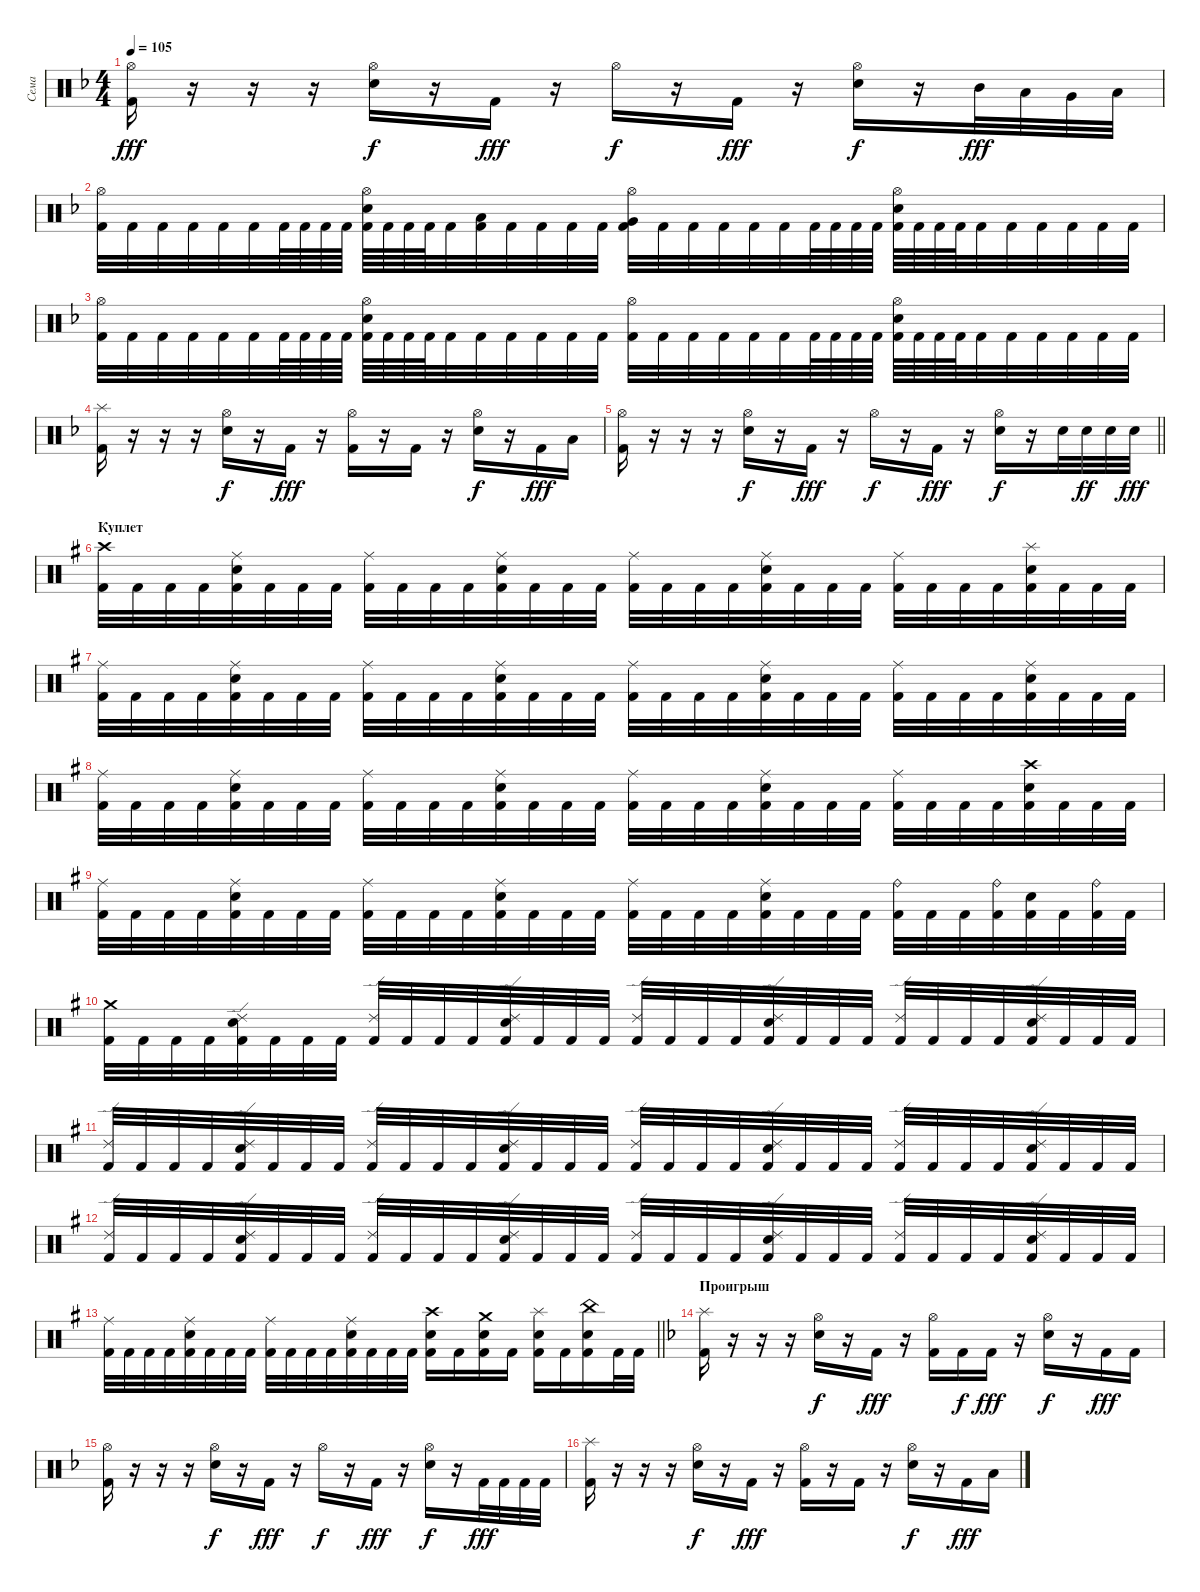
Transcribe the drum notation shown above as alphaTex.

\track ("Сема" "Сема") {instrument percussion}
\staff {score}
\articulation defaults
\ts (4 4)
\tempo 105
\clef neutral
\ks dminor
("Hi-Hat (open)" "Kick (hit) 2").16{dy fff} r.16 r.16 r.16 ("Hi-Hat (open)" "Electric Snare (hit)").16{dy f} r.16 "Kick (hit) 2".16{dy fff} r.16 "Hi-Hat (open)".16{dy f} r.16 "Kick (hit) 2".16{dy fff} r.16 ("Hi-Hat (open)" "Electric Snare (hit)").16{dy f} r.16 "Mid Tom (hit)".32{dy fff} "Low Tom (hit)".32 "Very Low Tom (hit)".32 "Low Floor Tom (hit)".32 |
("Hi-Hat (open)" "Kick (hit) 2").32 "Kick (hit) 2".32 "Kick (hit) 2".32 "Kick (hit) 2".32 "Kick (hit) 2".32 "Kick (hit) 2".32 "Kick (hit) 2".64 "Kick (hit) 2".64 "Kick (hit) 2".64 "Kick (hit) 2".64 ("Hi-Hat (open)" "Electric Snare (hit)" "Kick (hit) 2").64 "Kick (hit) 2".64 "Kick (hit) 2".64 "Kick (hit) 2".64 "Kick (hit) 2".32 ("Low Tom (hit)" "Kick (hit) 2").32 "Kick (hit) 2".32 "Kick (hit) 2".32 "Kick (hit) 2".32 "Kick (hit) 2".32 ("Hi-Hat (open)" "Very Low Tom (hit)" "Kick (hit) 2").32 "Kick (hit) 2".32 "Kick (hit) 2".32 "Kick (hit) 2".32 "Kick (hit) 2".32 "Kick (hit) 2".32 "Kick (hit) 2".64 "Kick (hit) 2".64 "Kick (hit) 2".64 "Kick (hit) 2".64 ("Hi-Hat (open)" "Electric Snare (hit)" "Kick (hit) 2").64 "Kick (hit) 2".64 "Kick (hit) 2".64 "Kick (hit) 2".64 "Kick (hit) 2".32 "Kick (hit) 2".32 "Kick (hit) 2".32 "Kick (hit) 2".32 "Kick (hit) 2".32 "Kick (hit) 2".32 |
("Hi-Hat (open)" "Kick (hit) 2").32 "Kick (hit) 2".32 "Kick (hit) 2".32 "Kick (hit) 2".32 "Kick (hit) 2".32 "Kick (hit) 2".32 "Kick (hit) 2".64 "Kick (hit) 2".64 "Kick (hit) 2".64 "Kick (hit) 2".64 ("Hi-Hat (open)" "Electric Snare (hit)" "Kick (hit) 2").64 "Kick (hit) 2".64 "Kick (hit) 2".64 "Kick (hit) 2".64 "Kick (hit) 2".32 "Kick (hit) 2".32 "Kick (hit) 2".32 "Kick (hit) 2".32 "Kick (hit) 2".32 "Kick (hit) 2".32 ("Hi-Hat (open)" "Kick (hit) 2").32 "Kick (hit) 2".32 "Kick (hit) 2".32 "Kick (hit) 2".32 "Kick (hit) 2".32 "Kick (hit) 2".32 "Kick (hit) 2".64 "Kick (hit) 2".64 "Kick (hit) 2".64 "Kick (hit) 2".64 ("Hi-Hat (open)" "Electric Snare (hit)" "Kick (hit) 2").64 "Kick (hit) 2".64 "Kick (hit) 2".64 "Kick (hit) 2".64 "Kick (hit) 2".32 "Kick (hit) 2".32 "Kick (hit) 2".32 "Kick (hit) 2".32 "Kick (hit) 2".32 "Kick (hit) 2".32 |
("Splash (hit)" "Kick (hit) 2").16 r.16 r.16 r.16 ("Hi-Hat (open)" "Electric Snare (hit)").16{dy f} r.16 "Kick (hit) 2".16{dy fff} r.16 ("Hi-Hat (open)" "Kick (hit) 2").16 r.16 "Kick (hit) 2".16 r.16 ("Hi-Hat (open)" "Electric Snare (hit)").16{dy f} r.16 "Kick (hit) 2".16{dy fff} "Low Floor Tom (hit)".16 |
\barLineRight lightlight
("Hi-Hat (open)" "Kick (hit) 2").16 r.16 r.16 r.16 ("Hi-Hat (open)" "Electric Snare (hit)").16{dy f} r.16 "Kick (hit) 2".16{dy fff} r.16 "Hi-Hat (open)".16{dy f} r.16 "Kick (hit) 2".16{dy fff} r.16 ("Hi-Hat (open)" "Electric Snare (hit)").16{dy f} r.16 "Electric Snare (hit)".32 "Electric Snare (hit)".32{dy ff} "Electric Snare (hit)".32 "Electric Snare (hit)".32{dy fff} |
\section ("" "Куплет")
\ks g
("Crash high (hit)" "Kick (hit) 2").32 "Kick (hit) 2".32 "Kick (hit) 2".32 "Kick (hit) 2".32 ("Ride (middle)" "Electric Snare (hit)" "Kick (hit) 2").32 "Kick (hit) 2".32 "Kick (hit) 2".32 "Kick (hit) 2".32 ("Ride (middle)" "Kick (hit) 2").32 "Kick (hit) 2".32 "Kick (hit) 2".32 "Kick (hit) 2".32 ("Ride (middle)" "Electric Snare (hit)" "Kick (hit) 2").32 "Kick (hit) 2".32 "Kick (hit) 2".32 "Kick (hit) 2".32 ("Ride (middle)" "Kick (hit) 2").32 "Kick (hit) 2".32 "Kick (hit) 2".32 "Kick (hit) 2".32 ("Ride (middle)" "Electric Snare (hit)" "Kick (hit) 2").32 "Kick (hit) 2".32 "Kick (hit) 2".32 "Kick (hit) 2".32 ("Ride (middle)" "Kick (hit) 2").32 "Kick (hit) 2".32 "Kick (hit) 2".32 "Kick (hit) 2".32 ("Splash (hit)" "Electric Snare (hit)" "Kick (hit) 2").32 "Kick (hit) 2".32 "Kick (hit) 2".32 "Kick (hit) 2".32 |
("Ride (middle)" "Kick (hit) 2").32 "Kick (hit) 2".32 "Kick (hit) 2".32 "Kick (hit) 2".32 ("Ride (middle)" "Electric Snare (hit)" "Kick (hit) 2").32 "Kick (hit) 2".32 "Kick (hit) 2".32 "Kick (hit) 2".32 ("Ride (middle)" "Kick (hit) 2").32 "Kick (hit) 2".32 "Kick (hit) 2".32 "Kick (hit) 2".32 ("Ride (middle)" "Electric Snare (hit)" "Kick (hit) 2").32 "Kick (hit) 2".32 "Kick (hit) 2".32 "Kick (hit) 2".32 ("Ride (middle)" "Kick (hit) 2").32 "Kick (hit) 2".32 "Kick (hit) 2".32 "Kick (hit) 2".32 ("Ride (middle)" "Electric Snare (hit)" "Kick (hit) 2").32 "Kick (hit) 2".32 "Kick (hit) 2".32 "Kick (hit) 2".32 ("Ride (middle)" "Kick (hit) 2").32 "Kick (hit) 2".32 "Kick (hit) 2".32 "Kick (hit) 2".32 ("Ride (middle)" "Electric Snare (hit)" "Kick (hit) 2").32 "Kick (hit) 2".32 "Kick (hit) 2".32 "Kick (hit) 2".32 |
("Ride (middle)" "Kick (hit) 2").32 "Kick (hit) 2".32 "Kick (hit) 2".32 "Kick (hit) 2".32 ("Ride (middle)" "Electric Snare (hit)" "Kick (hit) 2").32 "Kick (hit) 2".32 "Kick (hit) 2".32 "Kick (hit) 2".32 ("Ride (middle)" "Kick (hit) 2").32 "Kick (hit) 2".32 "Kick (hit) 2".32 "Kick (hit) 2".32 ("Ride (middle)" "Electric Snare (hit)" "Kick (hit) 2").32 "Kick (hit) 2".32 "Kick (hit) 2".32 "Kick (hit) 2".32 ("Ride (middle)" "Kick (hit) 2").32 "Kick (hit) 2".32 "Kick (hit) 2".32 "Kick (hit) 2".32 ("Ride (middle)" "Electric Snare (hit)" "Kick (hit) 2").32 "Kick (hit) 2".32 "Kick (hit) 2".32 "Kick (hit) 2".32 ("Ride (middle)" "Kick (hit) 2").32 "Kick (hit) 2".32 "Kick (hit) 2".32 "Kick (hit) 2".32 ("Crash high (hit)" "Electric Snare (hit)" "Kick (hit) 2").32 "Kick (hit) 2".32 "Kick (hit) 2".32 "Kick (hit) 2".32 |
("Ride (middle)" "Kick (hit) 2").32 "Kick (hit) 2".32 "Kick (hit) 2".32 "Kick (hit) 2".32 ("Ride (middle)" "Electric Snare (hit)" "Kick (hit) 2").32 "Kick (hit) 2".32 "Kick (hit) 2".32 "Kick (hit) 2".32 ("Ride (middle)" "Kick (hit) 2").32 "Kick (hit) 2".32 "Kick (hit) 2".32 "Kick (hit) 2".32 ("Ride (middle)" "Electric Snare (hit)" "Kick (hit) 2").32 "Kick (hit) 2".32 "Kick (hit) 2".32 "Kick (hit) 2".32 ("Ride (middle)" "Kick (hit) 2").32 "Kick (hit) 2".32 "Kick (hit) 2".32 "Kick (hit) 2".32 ("Ride (middle)" "Electric Snare (hit)" "Kick (hit) 2").32 "Kick (hit) 2".32 "Kick (hit) 2".32 "Kick (hit) 2".32 ("Ride (bell)" "Kick (hit) 2").32 "Kick (hit) 2".32 "Kick (hit) 2".32 ("Ride (bell)" "Kick (hit) 2").32 ("Electric Snare (hit)" "Kick (hit) 2").32 "Kick (hit) 2".32 ("Ride (bell)" "Kick (hit) 2").32 "Kick (hit) 2".32 |
("Crash medium (hit)" "Kick (hit) 2").32 "Kick (hit) 2".32 "Kick (hit) 2".32 "Kick (hit) 2".32 ("Ride (edge) 2" "Electric Snare (hit)" "Kick (hit) 2").32 "Kick (hit) 2".32 "Kick (hit) 2".32 "Kick (hit) 2".32 ("Ride (edge) 2" "Kick (hit) 2").32 "Kick (hit) 2".32 "Kick (hit) 2".32 "Kick (hit) 2".32 ("Ride (edge) 2" "Electric Snare (hit)" "Kick (hit) 2").32 "Kick (hit) 2".32 "Kick (hit) 2".32 "Kick (hit) 2".32 ("Ride (edge) 2" "Kick (hit) 2").32 "Kick (hit) 2".32 "Kick (hit) 2".32 "Kick (hit) 2".32 ("Ride (edge) 2" "Electric Snare (hit)" "Kick (hit) 2").32 "Kick (hit) 2".32 "Kick (hit) 2".32 "Kick (hit) 2".32 ("Ride (edge) 2" "Kick (hit) 2").32 "Kick (hit) 2".32 "Kick (hit) 2".32 "Kick (hit) 2".32 ("Ride (edge) 2" "Electric Snare (hit)" "Kick (hit) 2").32 "Kick (hit) 2".32 "Kick (hit) 2".32 "Kick (hit) 2".32 |
("Ride (edge) 2" "Kick (hit) 2").32 "Kick (hit) 2".32 "Kick (hit) 2".32 "Kick (hit) 2".32 ("Ride (edge) 2" "Electric Snare (hit)" "Kick (hit) 2").32 "Kick (hit) 2".32 "Kick (hit) 2".32 "Kick (hit) 2".32 ("Ride (edge) 2" "Kick (hit) 2").32 "Kick (hit) 2".32 "Kick (hit) 2".32 "Kick (hit) 2".32 ("Ride (edge) 2" "Electric Snare (hit)" "Kick (hit) 2").32 "Kick (hit) 2".32 "Kick (hit) 2".32 "Kick (hit) 2".32 ("Ride (edge) 2" "Kick (hit) 2").32 "Kick (hit) 2".32 "Kick (hit) 2".32 "Kick (hit) 2".32 ("Ride (edge) 2" "Electric Snare (hit)" "Kick (hit) 2").32 "Kick (hit) 2".32 "Kick (hit) 2".32 "Kick (hit) 2".32 ("Ride (edge) 2" "Kick (hit) 2").32 "Kick (hit) 2".32 "Kick (hit) 2".32 "Kick (hit) 2".32 ("Ride (edge) 2" "Electric Snare (hit)" "Kick (hit) 2").32 "Kick (hit) 2".32 "Kick (hit) 2".32 "Kick (hit) 2".32 |
("Ride (edge) 2" "Kick (hit) 2").32 "Kick (hit) 2".32 "Kick (hit) 2".32 "Kick (hit) 2".32 ("Ride (edge) 2" "Electric Snare (hit)" "Kick (hit) 2").32 "Kick (hit) 2".32 "Kick (hit) 2".32 "Kick (hit) 2".32 ("Ride (edge) 2" "Kick (hit) 2").32 "Kick (hit) 2".32 "Kick (hit) 2".32 "Kick (hit) 2".32 ("Ride (edge) 2" "Electric Snare (hit)" "Kick (hit) 2").32 "Kick (hit) 2".32 "Kick (hit) 2".32 "Kick (hit) 2".32 ("Ride (edge) 2" "Kick (hit) 2").32 "Kick (hit) 2".32 "Kick (hit) 2".32 "Kick (hit) 2".32 ("Ride (edge) 2" "Electric Snare (hit)" "Kick (hit) 2").32 "Kick (hit) 2".32 "Kick (hit) 2".32 "Kick (hit) 2".32 ("Ride (edge) 2" "Kick (hit) 2").32 "Kick (hit) 2".32 "Kick (hit) 2".32 "Kick (hit) 2".32 ("Ride (edge) 2" "Electric Snare (hit)" "Kick (hit) 2").32 "Kick (hit) 2".32 "Kick (hit) 2".32 "Kick (hit) 2".32 |
\barLineRight lightlight
("Ride (middle)" "Kick (hit) 2").32 "Kick (hit) 2".32 "Kick (hit) 2".32 "Kick (hit) 2".32 ("Ride (middle)" "Electric Snare (hit)" "Kick (hit) 2").32 "Kick (hit) 2".32 "Kick (hit) 2".32 "Kick (hit) 2".32 ("Ride (middle)" "Kick (hit) 2").32 "Kick (hit) 2".32 "Kick (hit) 2".32 "Kick (hit) 2".32 ("Ride (middle)" "Electric Snare (hit)" "Kick (hit) 2").32 "Kick (hit) 2".32 "Kick (hit) 2".32 "Kick (hit) 2".32 ("Crash high (hit)" "Electric Snare (hit)" "Kick (hit) 2").16 "Kick (hit) 2".16 ("Crash medium (hit)" "Electric Snare (hit)" "Kick (hit) 2").16 "Kick (hit) 2".16 ("Splash (hit)" "Electric Snare (hit)" "Kick (hit) 2").16 "Kick (hit) 2".16 ("China (hit)" "Electric Snare (hit)" "Kick (hit) 2").16 "Kick (hit) 2".32 "Kick (hit) 2".32 |
\section ("" "Проигрыш")
\ks dminor
("Splash (hit)" "Kick (hit) 2").16 r.16 r.16 r.16 ("Hi-Hat (open)" "Electric Snare (hit)").16{dy f} r.16 "Kick (hit) 2".16{dy fff} r.16 ("Hi-Hat (open)" "Kick (hit) 2").16 "Kick (hit) 2".16{dy f} "Kick (hit) 2".16{dy fff} r.16 ("Hi-Hat (open)" "Electric Snare (hit)").16{dy f} r.16 "Kick (hit) 2".16{dy fff} "Kick (hit) 2".16 |
("Hi-Hat (open)" "Kick (hit) 2").16 r.16 r.16 r.16 ("Hi-Hat (open)" "Electric Snare (hit)").16{dy f} r.16 "Kick (hit) 2".16{dy fff} r.16 "Hi-Hat (open)".16{dy f} r.16 "Kick (hit) 2".16{dy fff} r.16 ("Hi-Hat (open)" "Electric Snare (hit)").16{dy f} r.16 "Kick (hit) 2".32{dy fff} "Kick (hit) 2".32 "Kick (hit) 2".32 "Kick (hit) 2".32 |
("Splash (hit)" "Kick (hit) 2").16 r.16 r.16 r.16 ("Hi-Hat (open)" "Electric Snare (hit)").16{dy f} r.16 "Kick (hit) 2".16{dy fff} r.16 ("Hi-Hat (open)" "Kick (hit) 2").16 r.16 "Kick (hit) 2".16 r.16 ("Hi-Hat (open)" "Electric Snare (hit)").16{dy f} r.16 "Kick (hit) 2".16{dy fff} "Low Floor Tom (hit)".16
